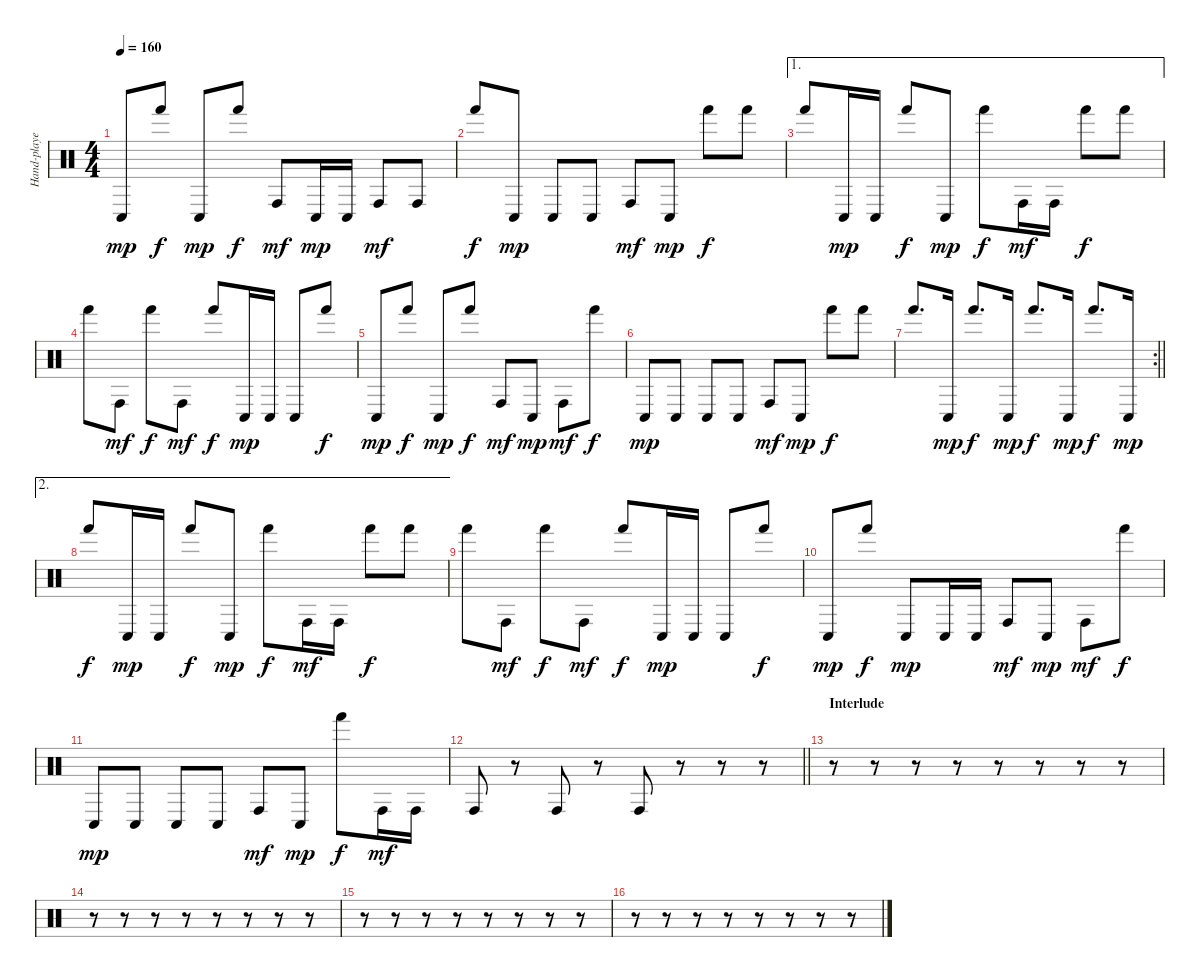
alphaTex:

\track ("Hand-played drums" "Hand-playe") {instrument percussion}
\staff {score}
\articulation defaults
\ts (4 4)
\tempo 160
\clef neutral
\ks c "Conga low (hit)".8{dy mp} "Hand (hit)".8{dy f} "Conga low (hit)".8{dy mp} "Hand (hit)".8{dy f} "Conga high (hit)".8{dy mf} "Conga low (hit)".16{dy mp} "Conga low (hit)".16 "Conga high (hit)".8{dy mf} "Conga high (hit)".8
|
"Hand (hit)".8{dy f} "Conga low (hit)".8{dy mp} "Conga low (hit)".8 "Conga low (hit)".8 "Conga high (hit)".8{dy mf} "Conga low (hit)".8{dy mp} "Hand (hit)".8{dy f} "Hand (hit)".8 |
\ae 1 "Hand (hit)".8 "Conga low (hit)".16{dy mp} "Conga low (hit)".16 "Hand (hit)".8{dy f} "Conga low (hit)".8{dy mp} "Hand (hit)".8{dy f} "Conga high (hit)".16{dy mf} "Conga high (hit)".16 "Hand (hit)".8{dy f} "Hand (hit)".8
|
"Hand (hit)".8 "Conga high (hit)".8{dy mf} "Hand (hit)".8{dy f} "Conga high (hit)".8{dy mf} "Hand (hit)".8{dy f} "Conga low (hit)".16{dy mp} "Conga low (hit)".16 "Conga low (hit)".8 "Hand (hit)".8{dy f} |
"Conga low (hit)".8{dy mp} "Hand (hit)".8{dy f} "Conga low (hit)".8{dy mp} "Hand (hit)".8{dy f} "Conga high (hit)".8{dy mf} "Conga low (hit)".8{dy mp} "Conga high (hit)".8{dy mf} "Hand (hit)".8{dy f} |
"Conga low (hit)".8{dy mp} "Conga low (hit)".8 "Conga low (hit)".8 "Conga low (hit)".8 "Conga high (hit)".8{dy mf} "Conga low (hit)".8{dy mp} "Hand (hit)".8{dy f} "Hand (hit)".8 |
\rc 2
\barLineRight lightlight "Hand (hit)".8{d} "Conga low (hit)".16{dy mp} "Hand (hit)".8{d dy f} "Conga low (hit)".16{dy mp} "Hand (hit)".8{d dy f} "Conga low (hit)".16{dy mp} "Hand (hit)".8{d dy f} "Conga low (hit)".16{dy mp}
|
\ae 2 "Hand (hit)".8{dy f} "Conga low (hit)".16{dy mp} "Conga low (hit)".16 "Hand (hit)".8{dy f} "Conga low (hit)".8{dy mp} "Hand (hit)".8{dy f} "Conga high (hit)".16{dy mf} "Conga high (hit)".16 "Hand (hit)".8{dy f} "Hand (hit)".8
|
"Hand (hit)".8 "Conga high (hit)".8{dy mf} "Hand (hit)".8{dy f} "Conga high (hit)".8{dy mf} "Hand (hit)".8{dy f} "Conga low (hit)".16{dy mp} "Conga low (hit)".16 "Conga low (hit)".8 "Hand (hit)".8{dy f} |
"Conga low (hit)".8{dy mp} "Hand (hit)".8{dy f} "Conga low (hit)".8{dy mp} "Conga low (hit)".16 "Conga low (hit)".16 "Conga high (hit)".8{dy mf} "Conga low (hit)".8{dy mp} "Conga high (hit)".8{dy mf} "Hand (hit)".8{dy f} |
"Conga low (hit)".8{dy mp} "Conga low (hit)".8 "Conga low (hit)".8 "Conga low (hit)".8 "Conga high (hit)".8{dy mf} "Conga low (hit)".8{dy mp} "Hand (hit)".8{dy f} "Conga high (hit)".16{dy mf} "Conga high (hit)".16 |
\barLineRight lightlight "Conga high (hit)".8
r.8 "Conga high (hit)".8 r.8 "Conga high (hit)".8 r.8 r.8 r.8 |
\section ("" "Interlude")
r.8 r.8 r.8 r.8 r.8 r.8 r.8 r.8 |
r.8 r.8 r.8 r.8 r.8 r.8 r.8 r.8 |
r.8 r.8 r.8 r.8 r.8 r.8 r.8 r.8 |
r.8 r.8 r.8 r.8 r.8 r.8 r.8 r.8
